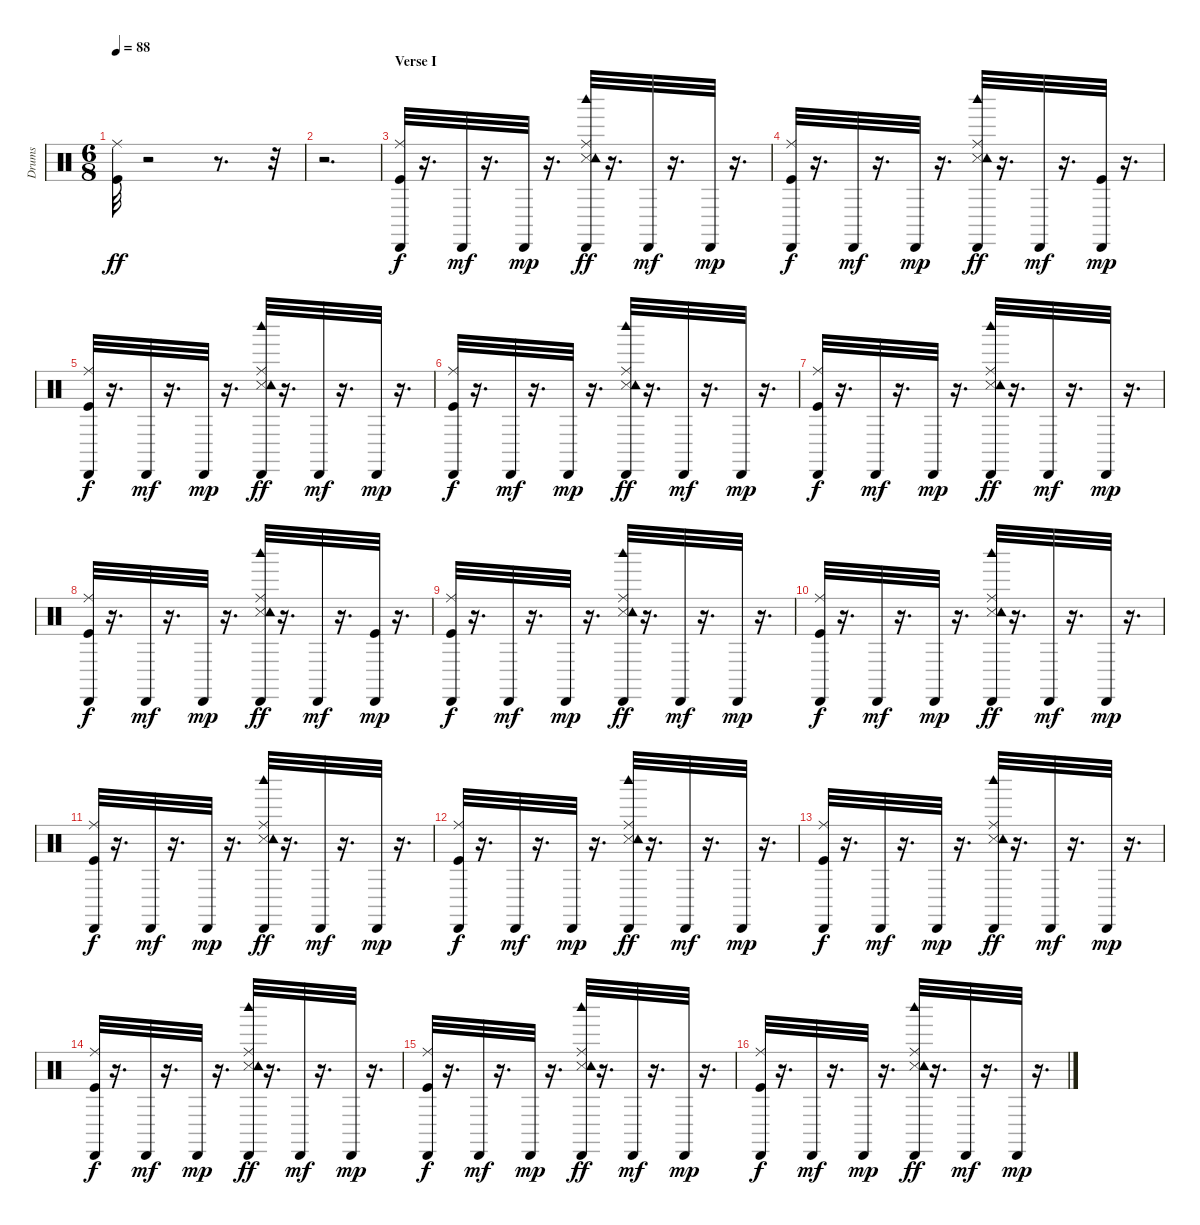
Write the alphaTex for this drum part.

\track ("Drums               " "Drums     ") {instrument percussion}
\staff {score}
\articulation defaults
\ts (6 8)
\tempo 88
\clef neutral
\ks c
("Kick (hit)" "Ride (middle)").32{dy ff} r.2 r.8{d} r.32 |
r.2{d} |
\section ("" "Verse I")
("Kick (hit)" "Ride (middle)" "Cabasa (hit)").32{dy f} r.16{d} "Cabasa (hit)".32{dy mf} r.16{d} "Cabasa (hit)".32{dy mp} r.16{d} ("Snare (side stick) 3" "Ride (middle)" "Tambourine (hit)" "Cabasa (hit)" "Woodblock high (hit)").32{dy ff} r.16{d} "Cabasa (hit)".32{dy mf} r.16{d} "Cabasa (hit)".32{dy mp} r.16{d} |
("Kick (hit)" "Ride (middle)" "Cabasa (hit)").32{dy f} r.16{d} "Cabasa (hit)".32{dy mf} r.16{d} "Cabasa (hit)".32{dy mp} r.16{d} ("Snare (side stick) 3" "Ride (middle)" "Tambourine (hit)" "Cabasa (hit)" "Woodblock high (hit)").32{dy ff} r.16{d} "Cabasa (hit)".32{dy mf} r.16{d} ("Kick (hit)" "Cabasa (hit)").32{dy mp} r.16{d} |
("Kick (hit)" "Ride (middle)" "Cabasa (hit)").32{dy f} r.16{d} "Cabasa (hit)".32{dy mf} r.16{d} "Cabasa (hit)".32{dy mp} r.16{d} ("Snare (side stick) 3" "Ride (middle)" "Tambourine (hit)" "Cabasa (hit)" "Woodblock high (hit)").32{dy ff} r.16{d} "Cabasa (hit)".32{dy mf} r.16{d} "Cabasa (hit)".32{dy mp} r.16{d} |
("Kick (hit)" "Ride (middle)" "Cabasa (hit)").32{dy f} r.16{d} "Cabasa (hit)".32{dy mf} r.16{d} "Cabasa (hit)".32{dy mp} r.16{d} ("Snare (side stick) 3" "Ride (middle)" "Tambourine (hit)" "Cabasa (hit)" "Woodblock high (hit)").32{dy ff} r.16{d} "Cabasa (hit)".32{dy mf} r.16{d} "Cabasa (hit)".32{dy mp} r.16{d} |
("Kick (hit)" "Ride (middle)" "Cabasa (hit)").32{dy f} r.16{d} "Cabasa (hit)".32{dy mf} r.16{d} "Cabasa (hit)".32{dy mp} r.16{d} ("Snare (side stick) 3" "Ride (middle)" "Tambourine (hit)" "Cabasa (hit)" "Woodblock high (hit)").32{dy ff} r.16{d} "Cabasa (hit)".32{dy mf} r.16{d} "Cabasa (hit)".32{dy mp} r.16{d} |
("Kick (hit)" "Ride (middle)" "Cabasa (hit)").32{dy f} r.16{d} "Cabasa (hit)".32{dy mf} r.16{d} "Cabasa (hit)".32{dy mp} r.16{d} ("Snare (side stick) 3" "Ride (middle)" "Tambourine (hit)" "Cabasa (hit)" "Woodblock high (hit)").32{dy ff} r.16{d} "Cabasa (hit)".32{dy mf} r.16{d} ("Kick (hit)" "Cabasa (hit)").32{dy mp} r.16{d} |
("Kick (hit)" "Ride (middle)" "Cabasa (hit)").32{dy f} r.16{d} "Cabasa (hit)".32{dy mf} r.16{d} "Cabasa (hit)".32{dy mp} r.16{d} ("Snare (side stick) 3" "Ride (middle)" "Tambourine (hit)" "Cabasa (hit)" "Woodblock high (hit)").32{dy ff} r.16{d} "Cabasa (hit)".32{dy mf} r.16{d} "Cabasa (hit)".32{dy mp} r.16{d} |
("Kick (hit)" "Ride (middle)" "Cabasa (hit)").32{dy f} r.16{d} "Cabasa (hit)".32{dy mf} r.16{d} "Cabasa (hit)".32{dy mp} r.16{d} ("Snare (side stick) 3" "Ride (middle)" "Tambourine (hit)" "Cabasa (hit)" "Woodblock high (hit)").32{dy ff} r.16{d} "Cabasa (hit)".32{dy mf} r.16{d} "Cabasa (hit)".32{dy mp} r.16{d} |
("Kick (hit)" "Ride (middle)" "Cabasa (hit)").32{dy f} r.16{d} "Cabasa (hit)".32{dy mf} r.16{d} "Cabasa (hit)".32{dy mp} r.16{d} ("Snare (side stick) 3" "Ride (middle)" "Tambourine (hit)" "Cabasa (hit)" "Woodblock high (hit)").32{dy ff} r.16{d} "Cabasa (hit)".32{dy mf} r.16{d} "Cabasa (hit)".32{dy mp} r.16{d} |
("Kick (hit)" "Ride (middle)" "Cabasa (hit)").32{dy f} r.16{d} "Cabasa (hit)".32{dy mf} r.16{d} "Cabasa (hit)".32{dy mp} r.16{d} ("Snare (side stick) 3" "Ride (middle)" "Tambourine (hit)" "Cabasa (hit)" "Woodblock high (hit)").32{dy ff} r.16{d} "Cabasa (hit)".32{dy mf} r.16{d} "Cabasa (hit)".32{dy mp} r.16{d} |
("Kick (hit)" "Ride (middle)" "Cabasa (hit)").32{dy f} r.16{d} "Cabasa (hit)".32{dy mf} r.16{d} "Cabasa (hit)".32{dy mp} r.16{d} ("Snare (side stick) 3" "Ride (middle)" "Tambourine (hit)" "Cabasa (hit)" "Woodblock high (hit)").32{dy ff} r.16{d} "Cabasa (hit)".32{dy mf} r.16{d} "Cabasa (hit)".32{dy mp} r.16{d} |
("Kick (hit)" "Ride (middle)" "Cabasa (hit)").32{dy f} r.16{d} "Cabasa (hit)".32{dy mf} r.16{d} "Cabasa (hit)".32{dy mp} r.16{d} ("Snare (side stick) 3" "Ride (middle)" "Tambourine (hit)" "Cabasa (hit)" "Woodblock high (hit)").32{dy ff} r.16{d} "Cabasa (hit)".32{dy mf} r.16{d} "Cabasa (hit)".32{dy mp} r.16{d} |
("Kick (hit)" "Ride (middle)" "Cabasa (hit)").32{dy f} r.16{d} "Cabasa (hit)".32{dy mf} r.16{d} "Cabasa (hit)".32{dy mp} r.16{d} ("Snare (side stick) 3" "Ride (middle)" "Tambourine (hit)" "Cabasa (hit)" "Woodblock high (hit)").32{dy ff} r.16{d} "Cabasa (hit)".32{dy mf} r.16{d} "Cabasa (hit)".32{dy mp} r.16{d} |
("Kick (hit)" "Ride (middle)" "Cabasa (hit)").32{dy f} r.16{d} "Cabasa (hit)".32{dy mf} r.16{d} "Cabasa (hit)".32{dy mp} r.16{d} ("Snare (side stick) 3" "Ride (middle)" "Tambourine (hit)" "Cabasa (hit)" "Woodblock high (hit)").32{dy ff} r.16{d} "Cabasa (hit)".32{dy mf} r.16{d} "Cabasa (hit)".32{dy mp} r.16{d}
